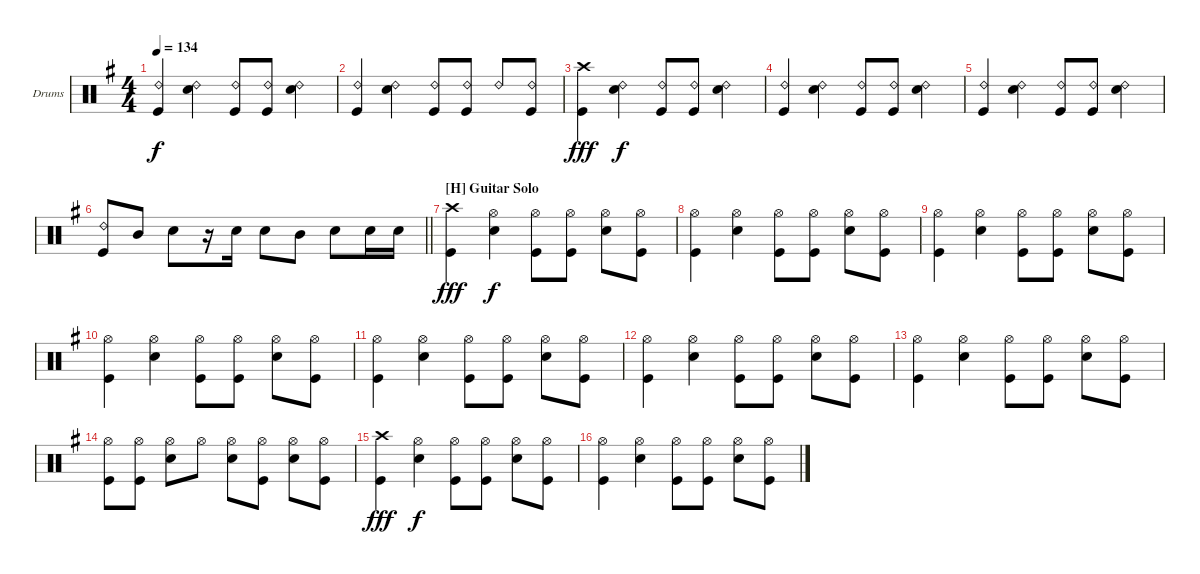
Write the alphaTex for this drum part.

\defaultSystemsLayout 4
\bracketExtendMode groupsimilarinstruments
\firstSystemTrackNameOrientation horizontal
\otherSystemsTrackNameOrientation horizontal
\track ("Bobby Blotzer" "Drums") {instrument percussion}
\staff {score}
\articulation defaults
\ts (4 4)
\tempo 134
\clef neutral
\ks g
("Kick (hit)" "Ride (bell) 2").4{dy f} ("Ride (bell) 2" "Snare (hit) 2").4 ("Ride (bell) 2" "Kick (hit)").8 ("Ride (bell) 2" "Kick (hit)").8 ("Ride (bell) 2" "Snare (hit) 2").4 |
("Kick (hit)" "Ride (bell) 2").4 ("Ride (bell) 2" "Snare (hit) 2").4 ("Ride (bell) 2" "Kick (hit)").8 ("Ride (bell) 2" "Kick (hit)").8 "Ride (bell) 2".8 ("Ride (bell) 2" "Kick (hit)").8 |
("Crash high (hit)" "Kick (hit)").4{dy fff} ("Ride (bell) 2" "Snare (hit) 2").4{dy f} ("Ride (bell) 2" "Kick (hit)").8 ("Ride (bell) 2" "Kick (hit)").8 ("Ride (bell) 2" "Snare (hit) 2").4 |
("Kick (hit)" "Ride (bell) 2").4 ("Ride (bell) 2" "Snare (hit) 2").4 ("Ride (bell) 2" "Kick (hit)").8 ("Ride (bell) 2" "Kick (hit)").8 ("Ride (bell) 2" "Snare (hit) 2").4 |
("Kick (hit)" "Ride (bell) 2").4 ("Ride (bell) 2" "Snare (hit) 2").4 ("Ride (bell) 2" "Kick (hit)").8 ("Ride (bell) 2" "Kick (hit)").8 ("Ride (bell) 2" "Snare (hit) 2").4 |
\barLineRight lightlight
("Kick (hit)" "Ride (bell) 2").8 "Mid Tom (hit)".8 "Snare (hit) 2".8 r.16 "Snare (hit) 2".16 "Snare (hit) 2".8 "Mid Tom (hit)".8 "Snare (hit) 2".8 "Snare (hit) 2".16 "Snare (hit) 2".16 |
\section ("H" "Guitar Solo")
("Kick (hit)" "Crash high (hit)").4{dy fff} ("Hi-Hat (open)" "Snare (hit) 2").4{dy f} ("Kick (hit)" "Hi-Hat (open)").8 ("Kick (hit)" "Hi-Hat (open)").8 ("Snare (hit) 2" "Hi-Hat (open)").8 ("Kick (hit)" "Hi-Hat (open)").8 |
("Kick (hit)" "Hi-Hat (open)").4 ("Hi-Hat (open)" "Snare (hit) 2").4 ("Kick (hit)" "Hi-Hat (open)").8 ("Kick (hit)" "Hi-Hat (open)").8 ("Snare (hit) 2" "Hi-Hat (open)").8 ("Kick (hit)" "Hi-Hat (open)").8 |
("Kick (hit)" "Hi-Hat (open)").4 ("Hi-Hat (open)" "Snare (hit) 2").4 ("Kick (hit)" "Hi-Hat (open)").8 ("Kick (hit)" "Hi-Hat (open)").8 ("Snare (hit) 2" "Hi-Hat (open)").8 ("Kick (hit)" "Hi-Hat (open)").8 |
("Kick (hit)" "Hi-Hat (open)").4 ("Hi-Hat (open)" "Snare (hit) 2").4 ("Kick (hit)" "Hi-Hat (open)").8 ("Kick (hit)" "Hi-Hat (open)").8 ("Snare (hit) 2" "Hi-Hat (open)").8 ("Kick (hit)" "Hi-Hat (open)").8 |
("Kick (hit)" "Hi-Hat (open)").4 ("Hi-Hat (open)" "Snare (hit) 2").4 ("Kick (hit)" "Hi-Hat (open)").8 ("Kick (hit)" "Hi-Hat (open)").8 ("Snare (hit) 2" "Hi-Hat (open)").8 ("Kick (hit)" "Hi-Hat (open)").8 |
("Kick (hit)" "Hi-Hat (open)").4 ("Hi-Hat (open)" "Snare (hit) 2").4 ("Kick (hit)" "Hi-Hat (open)").8 ("Kick (hit)" "Hi-Hat (open)").8 ("Snare (hit) 2" "Hi-Hat (open)").8 ("Kick (hit)" "Hi-Hat (open)").8 |
("Kick (hit)" "Hi-Hat (open)").4 ("Hi-Hat (open)" "Snare (hit) 2").4 ("Kick (hit)" "Hi-Hat (open)").8 ("Kick (hit)" "Hi-Hat (open)").8 ("Snare (hit) 2" "Hi-Hat (open)").8 ("Kick (hit)" "Hi-Hat (open)").8 |
("Kick (hit)" "Hi-Hat (open)").8 ("Kick (hit)" "Hi-Hat (open)").8 ("Snare (hit) 2" "Hi-Hat (open)").8 "Hi-Hat (open)".8 ("Snare (hit) 2" "Hi-Hat (open)").8 ("Kick (hit)" "Hi-Hat (open)").8 ("Snare (hit) 2" "Hi-Hat (open)").8 ("Kick (hit)" "Hi-Hat (open)").8 |
("Kick (hit)" "Crash high (hit)").4{dy fff} ("Hi-Hat (open)" "Snare (hit) 2").4{dy f} ("Kick (hit)" "Hi-Hat (open)").8 ("Kick (hit)" "Hi-Hat (open)").8 ("Snare (hit) 2" "Hi-Hat (open)").8 ("Kick (hit)" "Hi-Hat (open)").8 |
("Kick (hit)" "Hi-Hat (open)").4 ("Hi-Hat (open)" "Snare (hit) 2").4 ("Kick (hit)" "Hi-Hat (open)").8 ("Kick (hit)" "Hi-Hat (open)").8 ("Snare (hit) 2" "Hi-Hat (open)").8 ("Kick (hit)" "Hi-Hat (open)").8
